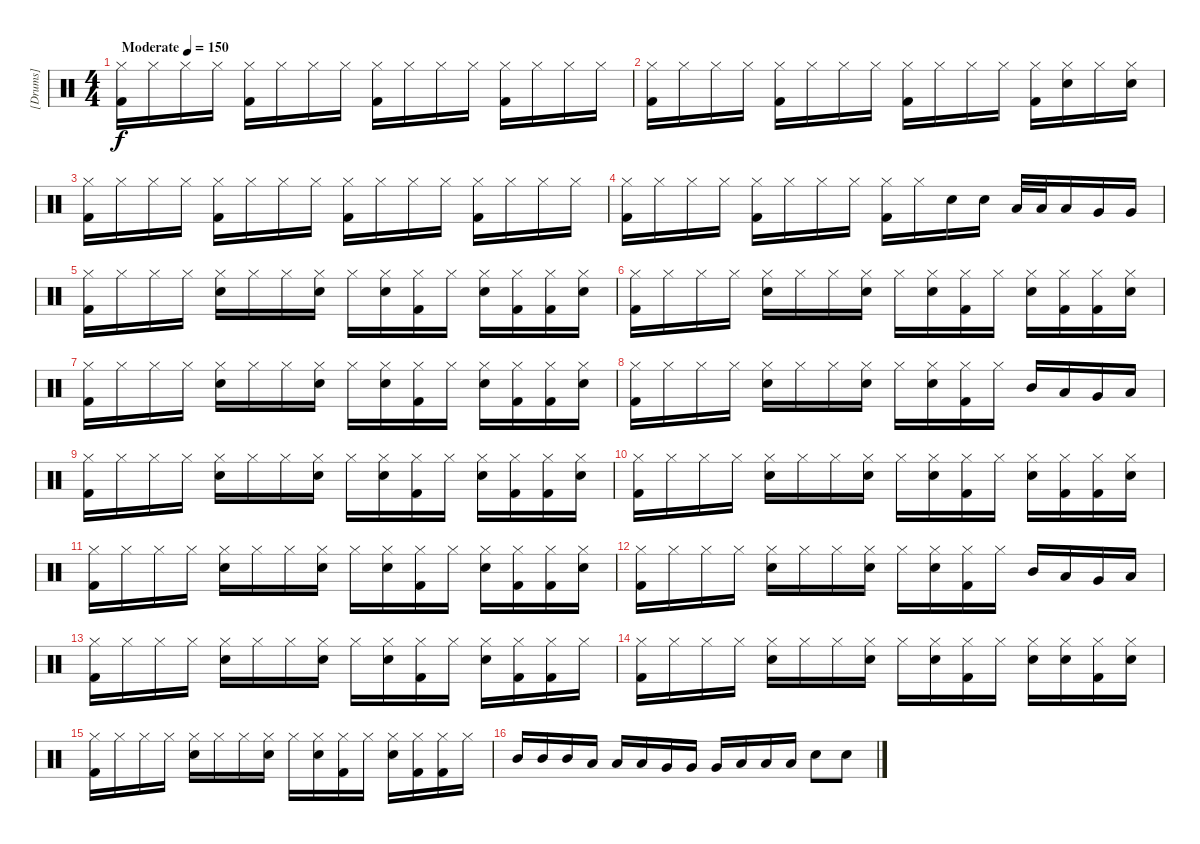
\track ("[Drums]" "[Drums]") {instrument percussion}
\staff {score}
\articulation defaults
\ts (4 4)
\tempo (150 "Moderate")
\clef neutral
\ks c
("Hi-Hat (closed)" "Kick (hit) 2").16{dy f} "Hi-Hat (closed)".16 "Hi-Hat (closed)".16 "Hi-Hat (closed)".16 ("Hi-Hat (closed)" "Kick (hit) 2").16 "Hi-Hat (closed)".16 "Hi-Hat (closed)".16 "Hi-Hat (closed)".16 ("Hi-Hat (closed)" "Kick (hit) 2").16 "Hi-Hat (closed)".16 "Hi-Hat (closed)".16 "Hi-Hat (closed)".16 ("Hi-Hat (closed)" "Kick (hit) 2").16 "Hi-Hat (closed)".16 "Hi-Hat (closed)".16 "Hi-Hat (closed)".16 |
("Hi-Hat (closed)" "Kick (hit) 2").16 "Hi-Hat (closed)".16 "Hi-Hat (closed)".16 "Hi-Hat (closed)".16 ("Hi-Hat (closed)" "Kick (hit) 2").16 "Hi-Hat (closed)".16 "Hi-Hat (closed)".16 "Hi-Hat (closed)".16 ("Hi-Hat (closed)" "Kick (hit) 2").16 "Hi-Hat (closed)".16 "Hi-Hat (closed)".16 "Hi-Hat (closed)".16 ("Hi-Hat (closed)" "Kick (hit) 2").16 ("Hi-Hat (closed)" "Electric Snare (hit)").16 "Hi-Hat (closed)".16 ("Hi-Hat (closed)" "Electric Snare (hit)").16 |
("Hi-Hat (closed)" "Kick (hit) 2").16 "Hi-Hat (closed)".16 "Hi-Hat (closed)".16 "Hi-Hat (closed)".16 ("Hi-Hat (closed)" "Kick (hit) 2").16 "Hi-Hat (closed)".16 "Hi-Hat (closed)".16 "Hi-Hat (closed)".16 ("Hi-Hat (closed)" "Kick (hit) 2").16 "Hi-Hat (closed)".16 "Hi-Hat (closed)".16 "Hi-Hat (closed)".16 ("Hi-Hat (closed)" "Kick (hit) 2").16 "Hi-Hat (closed)".16 "Hi-Hat (closed)".16 "Hi-Hat (closed)".16 |
("Hi-Hat (closed)" "Kick (hit) 2").16 "Hi-Hat (closed)".16 "Hi-Hat (closed)".16 "Hi-Hat (closed)".16 ("Hi-Hat (closed)" "Kick (hit) 2").16 "Hi-Hat (closed)".16 "Hi-Hat (closed)".16 "Hi-Hat (closed)".16 ("Hi-Hat (closed)" "Kick (hit) 2").16 "Hi-Hat (closed)".16 "Electric Snare (hit)".16 "Electric Snare (hit)".16 "Low Tom (hit)".32 "Low Tom (hit)".32 "Low Tom (hit)".16 "Very Low Tom (hit)".16 "Very Low Tom (hit)".16 |
("Hi-Hat (closed)" "Kick (hit) 2").16 "Hi-Hat (closed)".16 "Hi-Hat (closed)".16 "Hi-Hat (closed)".16 ("Hi-Hat (closed)" "Electric Snare (hit)").16 "Hi-Hat (closed)".16 "Hi-Hat (closed)".16 ("Hi-Hat (closed)" "Electric Snare (hit)").16 "Hi-Hat (closed)".16 ("Hi-Hat (closed)" "Electric Snare (hit)").16 ("Hi-Hat (closed)" "Kick (hit) 2").16 "Hi-Hat (closed)".16 ("Hi-Hat (closed)" "Electric Snare (hit)").16 ("Hi-Hat (closed)" "Kick (hit) 2").16 ("Hi-Hat (closed)" "Kick (hit) 2").16 ("Hi-Hat (closed)" "Electric Snare (hit)").16 |
("Hi-Hat (closed)" "Kick (hit) 2").16 "Hi-Hat (closed)".16 "Hi-Hat (closed)".16 "Hi-Hat (closed)".16 ("Hi-Hat (closed)" "Electric Snare (hit)").16 "Hi-Hat (closed)".16 "Hi-Hat (closed)".16 ("Hi-Hat (closed)" "Electric Snare (hit)").16 "Hi-Hat (closed)".16 ("Hi-Hat (closed)" "Electric Snare (hit)").16 ("Hi-Hat (closed)" "Kick (hit) 2").16 "Hi-Hat (closed)".16 ("Hi-Hat (closed)" "Electric Snare (hit)").16 ("Hi-Hat (closed)" "Kick (hit) 2").16 ("Hi-Hat (closed)" "Kick (hit) 2").16 ("Hi-Hat (closed)" "Electric Snare (hit)").16 |
("Hi-Hat (closed)" "Kick (hit) 2").16 "Hi-Hat (closed)".16 "Hi-Hat (closed)".16 "Hi-Hat (closed)".16 ("Hi-Hat (closed)" "Electric Snare (hit)").16 "Hi-Hat (closed)".16 "Hi-Hat (closed)".16 ("Hi-Hat (closed)" "Electric Snare (hit)").16 "Hi-Hat (closed)".16 ("Hi-Hat (closed)" "Electric Snare (hit)").16 ("Hi-Hat (closed)" "Kick (hit) 2").16 "Hi-Hat (closed)".16 ("Hi-Hat (closed)" "Electric Snare (hit)").16 ("Hi-Hat (closed)" "Kick (hit) 2").16 ("Hi-Hat (closed)" "Kick (hit) 2").16 ("Hi-Hat (closed)" "Electric Snare (hit)").16 |
("Hi-Hat (closed)" "Kick (hit) 2").16 "Hi-Hat (closed)".16 "Hi-Hat (closed)".16 "Hi-Hat (closed)".16 ("Hi-Hat (closed)" "Electric Snare (hit)").16 "Hi-Hat (closed)".16 "Hi-Hat (closed)".16 ("Hi-Hat (closed)" "Electric Snare (hit)").16 "Hi-Hat (closed)".16 ("Hi-Hat (closed)" "Electric Snare (hit)").16 ("Hi-Hat (closed)" "Kick (hit) 2").16 "Hi-Hat (closed)".16 "Mid Tom (hit)".16 "Low Tom (hit)".16 "Very Low Tom (hit)".16 "Low Floor Tom (hit)".16 |
("Hi-Hat (closed)" "Kick (hit) 2").16 "Hi-Hat (closed)".16 "Hi-Hat (closed)".16 "Hi-Hat (closed)".16 ("Hi-Hat (closed)" "Electric Snare (hit)").16 "Hi-Hat (closed)".16 "Hi-Hat (closed)".16 ("Hi-Hat (closed)" "Electric Snare (hit)").16 "Hi-Hat (closed)".16 ("Hi-Hat (closed)" "Electric Snare (hit)").16 ("Hi-Hat (closed)" "Kick (hit) 2").16 "Hi-Hat (closed)".16 ("Hi-Hat (closed)" "Electric Snare (hit)").16 ("Hi-Hat (closed)" "Kick (hit) 2").16 ("Hi-Hat (closed)" "Kick (hit) 2").16 ("Hi-Hat (closed)" "Electric Snare (hit)").16 |
("Hi-Hat (closed)" "Kick (hit) 2").16 "Hi-Hat (closed)".16 "Hi-Hat (closed)".16 "Hi-Hat (closed)".16 ("Hi-Hat (closed)" "Electric Snare (hit)").16 "Hi-Hat (closed)".16 "Hi-Hat (closed)".16 ("Hi-Hat (closed)" "Electric Snare (hit)").16 "Hi-Hat (closed)".16 ("Hi-Hat (closed)" "Electric Snare (hit)").16 ("Hi-Hat (closed)" "Kick (hit) 2").16 "Hi-Hat (closed)".16 ("Hi-Hat (closed)" "Electric Snare (hit)").16 ("Hi-Hat (closed)" "Kick (hit) 2").16 ("Hi-Hat (closed)" "Kick (hit) 2").16 ("Hi-Hat (closed)" "Electric Snare (hit)").16 |
("Hi-Hat (closed)" "Kick (hit) 2").16 "Hi-Hat (closed)".16 "Hi-Hat (closed)".16 "Hi-Hat (closed)".16 ("Hi-Hat (closed)" "Electric Snare (hit)").16 "Hi-Hat (closed)".16 "Hi-Hat (closed)".16 ("Hi-Hat (closed)" "Electric Snare (hit)").16 "Hi-Hat (closed)".16 ("Hi-Hat (closed)" "Electric Snare (hit)").16 ("Hi-Hat (closed)" "Kick (hit) 2").16 "Hi-Hat (closed)".16 ("Hi-Hat (closed)" "Electric Snare (hit)").16 ("Hi-Hat (closed)" "Kick (hit) 2").16 ("Hi-Hat (closed)" "Kick (hit) 2").16 ("Hi-Hat (closed)" "Electric Snare (hit)").16 |
("Hi-Hat (closed)" "Kick (hit) 2").16 "Hi-Hat (closed)".16 "Hi-Hat (closed)".16 "Hi-Hat (closed)".16 ("Hi-Hat (closed)" "Electric Snare (hit)").16 "Hi-Hat (closed)".16 "Hi-Hat (closed)".16 ("Hi-Hat (closed)" "Electric Snare (hit)").16 "Hi-Hat (closed)".16 ("Hi-Hat (closed)" "Electric Snare (hit)").16 ("Hi-Hat (closed)" "Kick (hit) 2").16 "Hi-Hat (closed)".16 "Mid Tom (hit)".16 "Low Tom (hit)".16 "Very Low Tom (hit)".16 "Low Floor Tom (hit)".16 |
("Hi-Hat (closed)" "Kick (hit) 2").16 "Hi-Hat (closed)".16 "Hi-Hat (closed)".16 "Hi-Hat (closed)".16 ("Hi-Hat (closed)" "Electric Snare (hit)").16 "Hi-Hat (closed)".16 "Hi-Hat (closed)".16 ("Hi-Hat (closed)" "Electric Snare (hit)").16 "Hi-Hat (closed)".16 ("Hi-Hat (closed)" "Electric Snare (hit)").16 ("Hi-Hat (closed)" "Kick (hit) 2").16 "Hi-Hat (closed)".16 ("Hi-Hat (closed)" "Electric Snare (hit)").16 ("Hi-Hat (closed)" "Kick (hit) 2").16 ("Hi-Hat (closed)" "Kick (hit) 2").16 "Hi-Hat (closed)".16 |
("Hi-Hat (closed)" "Kick (hit) 2").16 "Hi-Hat (closed)".16 "Hi-Hat (closed)".16 "Hi-Hat (closed)".16 ("Hi-Hat (closed)" "Electric Snare (hit)").16 "Hi-Hat (closed)".16 "Hi-Hat (closed)".16 ("Hi-Hat (closed)" "Electric Snare (hit)").16 "Hi-Hat (closed)".16 ("Hi-Hat (closed)" "Electric Snare (hit)").16 ("Hi-Hat (closed)" "Kick (hit) 2").16 "Hi-Hat (closed)".16 ("Hi-Hat (closed)" "Electric Snare (hit)").16 ("Hi-Hat (closed)" "Electric Snare (hit)").16 ("Hi-Hat (closed)" "Kick (hit) 2").16 ("Hi-Hat (closed)" "Electric Snare (hit)").16 |
("Hi-Hat (closed)" "Kick (hit) 2").16 "Hi-Hat (closed)".16 "Hi-Hat (closed)".16 "Hi-Hat (closed)".16 ("Hi-Hat (closed)" "Electric Snare (hit)").16 "Hi-Hat (closed)".16 "Hi-Hat (closed)".16 ("Hi-Hat (closed)" "Electric Snare (hit)").16 "Hi-Hat (closed)".16 ("Hi-Hat (closed)" "Electric Snare (hit)").16 ("Hi-Hat (closed)" "Kick (hit) 2").16 "Hi-Hat (closed)".16 ("Hi-Hat (closed)" "Electric Snare (hit)").16 ("Hi-Hat (closed)" "Kick (hit) 2").16 ("Hi-Hat (closed)" "Kick (hit) 2").16 "Hi-Hat (closed)".16 |
"Mid Tom (hit)".16 "Mid Tom (hit)".16 "Mid Tom (hit)".16 "Low Tom (hit)".16 "Low Tom (hit)".16 "Low Tom (hit)".16 "Very Low Tom (hit)".16 "Very Low Tom (hit)".16 "Very Low Tom (hit)".16 "Low Floor Tom (hit)".16 "Low Floor Tom (hit)".16 "Low Floor Tom (hit)".16 "Electric Snare (hit)".8 "Electric Snare (hit)".8
